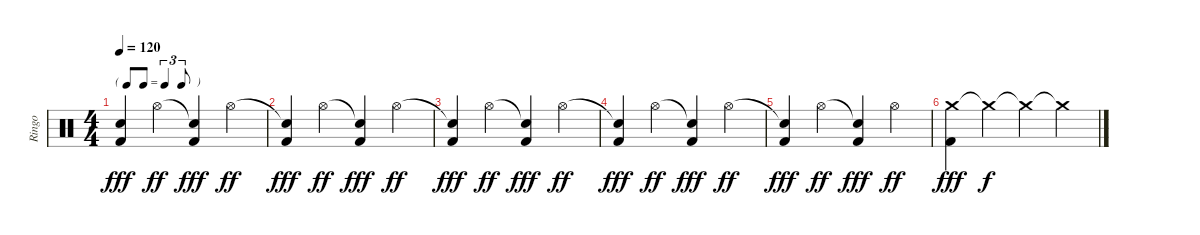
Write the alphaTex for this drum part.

\track ("Ringo" "Ringo") {instrument percussion}
\staff {score}
\articulation defaults
\ts (4 4)
\tf triplet8th
\tempo 120
\clef neutral
\ks c
("Snare (hit)"{t} "Kick (hit) 2").4{dy fff} "Hi-Hat (open)".4{dy ff} ("Snare (hit)"{t} "Kick (hit) 2").4{dy fff} "Hi-Hat (open)".4{dy ff} |
("Snare (hit)"{t} "Kick (hit) 2").4{dy fff} "Hi-Hat (open)".4{dy ff} ("Snare (hit)"{t} "Kick (hit) 2").4{dy fff} "Hi-Hat (open)".4{dy ff} |
("Snare (hit)"{t} "Kick (hit) 2").4{dy fff} "Hi-Hat (open)".4{dy ff} ("Snare (hit)"{t} "Kick (hit) 2").4{dy fff} "Hi-Hat (open)".4{dy ff} |
("Snare (hit)"{t} "Kick (hit) 2").4{dy fff} "Hi-Hat (open)".4{dy ff} ("Snare (hit)"{t} "Kick (hit) 2").4{dy fff} "Hi-Hat (open)".4{dy ff} |
("Snare (hit)"{t} "Kick (hit) 2").4{dy fff} "Hi-Hat (open)".4{dy ff} ("Snare (hit)"{t} "Kick (hit) 2").4{dy fff} "Hi-Hat (open)".4{dy ff} |
("Crash medium (hit)" "Kick (hit) 2").4{dy fff} "Crash medium (hit)"{t}.4{dy f} "Crash medium (hit)"{t}.4 "Crash medium (hit)"{t}.4
